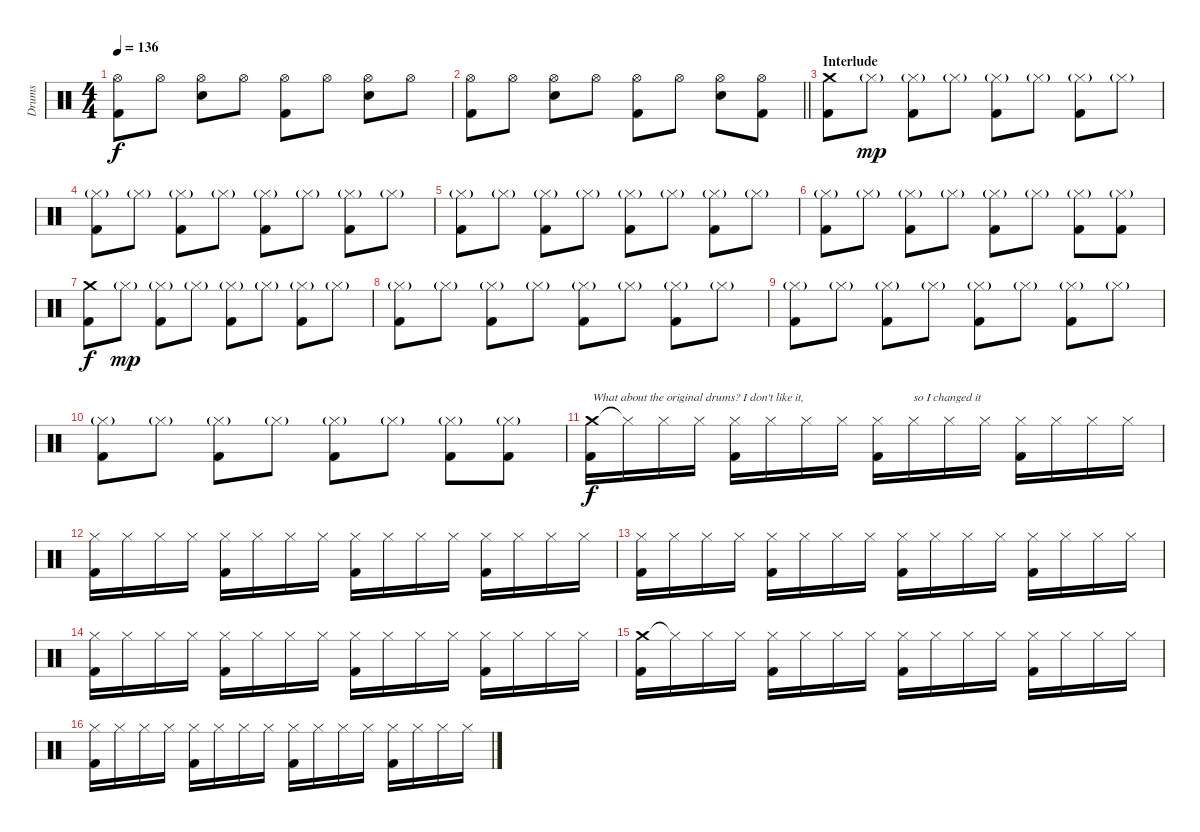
\track ("Drums" "Drums") {instrument percussion}
\staff {score}
\articulation defaults
\ts (4 4)
\tempo 136
\clef neutral
\ks c
("Hi-Hat (open)" "Kick (hit) 2").8{dy f} "Hi-Hat (open)".8 ("Hi-Hat (open)" "Electric Snare (hit)").8 "Hi-Hat (open)".8 ("Hi-Hat (open)" "Kick (hit) 2").8 "Hi-Hat (open)".8 ("Hi-Hat (open)" "Electric Snare (hit)").8 "Hi-Hat (open)".8 |
\barLineRight lightlight
("Hi-Hat (open)" "Kick (hit) 2").8 "Hi-Hat (open)".8 ("Hi-Hat (open)" "Electric Snare (hit)").8 "Hi-Hat (open)".8 ("Hi-Hat (open)" "Kick (hit) 2").8 "Hi-Hat (open)".8 ("Hi-Hat (open)" "Electric Snare (hit)").8 ("Hi-Hat (open)" "Kick (hit) 2").8 |
\section ("" "Interlude")
("Crash medium (hit)" "Kick (hit) 2").8 "Hi-Hat (closed)"{g}.8{dy mp} ("Hi-Hat (closed)"{g} "Kick (hit) 2").8 "Hi-Hat (closed)"{g}.8 ("Hi-Hat (closed)"{g} "Kick (hit) 2").8 "Hi-Hat (closed)"{g}.8 ("Hi-Hat (closed)"{g} "Kick (hit) 2").8 "Hi-Hat (closed)"{g}.8 |
("Hi-Hat (closed)"{g} "Kick (hit) 2").8 "Hi-Hat (closed)"{g}.8 ("Hi-Hat (closed)"{g} "Kick (hit) 2").8 "Hi-Hat (closed)"{g}.8 ("Hi-Hat (closed)"{g} "Kick (hit) 2").8 "Hi-Hat (closed)"{g}.8 ("Hi-Hat (closed)"{g} "Kick (hit) 2").8 "Hi-Hat (closed)"{g}.8 |
("Hi-Hat (closed)"{g} "Kick (hit) 2").8 "Hi-Hat (closed)"{g}.8 ("Hi-Hat (closed)"{g} "Kick (hit) 2").8 "Hi-Hat (closed)"{g}.8 ("Hi-Hat (closed)"{g} "Kick (hit) 2").8 "Hi-Hat (closed)"{g}.8 ("Hi-Hat (closed)"{g} "Kick (hit) 2").8 "Hi-Hat (closed)"{g}.8 |
("Hi-Hat (closed)"{g} "Kick (hit) 2").8 "Hi-Hat (closed)"{g}.8 ("Hi-Hat (closed)"{g} "Kick (hit) 2").8 "Hi-Hat (closed)"{g}.8 ("Hi-Hat (closed)"{g} "Kick (hit) 2").8 "Hi-Hat (closed)"{g}.8 ("Hi-Hat (closed)"{g} "Kick (hit) 2").8 ("Hi-Hat (closed)"{g} "Kick (hit) 2").8 |
("Crash medium (hit)" "Kick (hit) 2").8{dy f} "Hi-Hat (closed)"{g}.8{dy mp} ("Hi-Hat (closed)"{g} "Kick (hit) 2").8 "Hi-Hat (closed)"{g}.8 ("Hi-Hat (closed)"{g} "Kick (hit) 2").8 "Hi-Hat (closed)"{g}.8 ("Hi-Hat (closed)"{g} "Kick (hit) 2").8 "Hi-Hat (closed)"{g}.8 |
("Hi-Hat (closed)"{g} "Kick (hit) 2").8 "Hi-Hat (closed)"{g}.8 ("Hi-Hat (closed)"{g} "Kick (hit) 2").8 "Hi-Hat (closed)"{g}.8 ("Hi-Hat (closed)"{g} "Kick (hit) 2").8 "Hi-Hat (closed)"{g}.8 ("Hi-Hat (closed)"{g} "Kick (hit) 2").8 "Hi-Hat (closed)"{g}.8 |
("Hi-Hat (closed)"{g} "Kick (hit) 2").8 "Hi-Hat (closed)"{g}.8 ("Hi-Hat (closed)"{g} "Kick (hit) 2").8 "Hi-Hat (closed)"{g}.8 ("Hi-Hat (closed)"{g} "Kick (hit) 2").8 "Hi-Hat (closed)"{g}.8 ("Hi-Hat (closed)"{g} "Kick (hit) 2").8 "Hi-Hat (closed)"{g}.8 |
("Hi-Hat (closed)"{g} "Kick (hit) 2").8 "Hi-Hat (closed)"{g}.8 ("Hi-Hat (closed)"{g} "Kick (hit) 2").8 "Hi-Hat (closed)"{g}.8 ("Hi-Hat (closed)"{g} "Kick (hit) 2").8 "Hi-Hat (closed)"{g}.8 ("Hi-Hat (closed)"{g} "Kick (hit) 2").8 ("Hi-Hat (closed)"{g} "Kick (hit) 2").8 |
("Crash medium (hit)" "Kick (hit) 2").16{txt "What about the original drums? I don't like it," dy f} "Hi-Hat (closed)"{t}.16 "Hi-Hat (closed)".16 "Hi-Hat (closed)".16 ("Hi-Hat (closed)" "Kick (hit) 2").16 "Hi-Hat (closed)".16 "Hi-Hat (closed)".16 "Hi-Hat (closed)".16 ("Hi-Hat (closed)" "Kick (hit) 2").16 "Hi-Hat (closed)".16{txt "so I changed it"} "Hi-Hat (closed)".16 "Hi-Hat (closed)".16 ("Hi-Hat (closed)" "Kick (hit) 2").16 "Hi-Hat (closed)".16 "Hi-Hat (closed)".16 "Hi-Hat (closed)".16 |
("Hi-Hat (closed)" "Kick (hit) 2").16 "Hi-Hat (closed)".16 "Hi-Hat (closed)".16 "Hi-Hat (closed)".16 ("Hi-Hat (closed)" "Kick (hit) 2").16 "Hi-Hat (closed)".16 "Hi-Hat (closed)".16 "Hi-Hat (closed)".16 ("Hi-Hat (closed)" "Kick (hit) 2").16 "Hi-Hat (closed)".16 "Hi-Hat (closed)".16 "Hi-Hat (closed)".16 ("Hi-Hat (closed)" "Kick (hit) 2").16 "Hi-Hat (closed)".16 "Hi-Hat (closed)".16 "Hi-Hat (closed)".16 |
("Hi-Hat (closed)" "Kick (hit) 2").16 "Hi-Hat (closed)".16 "Hi-Hat (closed)".16 "Hi-Hat (closed)".16 ("Hi-Hat (closed)" "Kick (hit) 2").16 "Hi-Hat (closed)".16 "Hi-Hat (closed)".16 "Hi-Hat (closed)".16 ("Hi-Hat (closed)" "Kick (hit) 2").16 "Hi-Hat (closed)".16 "Hi-Hat (closed)".16 "Hi-Hat (closed)".16 ("Hi-Hat (closed)" "Kick (hit) 2").16 "Hi-Hat (closed)".16 "Hi-Hat (closed)".16 "Hi-Hat (closed)".16 |
("Hi-Hat (closed)" "Kick (hit) 2").16 "Hi-Hat (closed)".16 "Hi-Hat (closed)".16 "Hi-Hat (closed)".16 ("Hi-Hat (closed)" "Kick (hit) 2").16 "Hi-Hat (closed)".16 "Hi-Hat (closed)".16 "Hi-Hat (closed)".16 ("Hi-Hat (closed)" "Kick (hit) 2").16 "Hi-Hat (closed)".16 "Hi-Hat (closed)".16 "Hi-Hat (closed)".16 ("Hi-Hat (closed)" "Kick (hit) 2").16 "Hi-Hat (closed)".16 "Hi-Hat (closed)".16 "Hi-Hat (closed)".16 |
("Crash medium (hit)" "Kick (hit) 2").16 "Hi-Hat (closed)"{t}.16 "Hi-Hat (closed)".16 "Hi-Hat (closed)".16 ("Hi-Hat (closed)" "Kick (hit) 2").16 "Hi-Hat (closed)".16 "Hi-Hat (closed)".16 "Hi-Hat (closed)".16 ("Hi-Hat (closed)" "Kick (hit) 2").16 "Hi-Hat (closed)".16 "Hi-Hat (closed)".16 "Hi-Hat (closed)".16 ("Hi-Hat (closed)" "Kick (hit) 2").16 "Hi-Hat (closed)".16 "Hi-Hat (closed)".16 "Hi-Hat (closed)".16 |
("Hi-Hat (closed)" "Kick (hit) 2").16 "Hi-Hat (closed)".16 "Hi-Hat (closed)".16 "Hi-Hat (closed)".16 ("Hi-Hat (closed)" "Kick (hit) 2").16 "Hi-Hat (closed)".16 "Hi-Hat (closed)".16 "Hi-Hat (closed)".16 ("Hi-Hat (closed)" "Kick (hit) 2").16 "Hi-Hat (closed)".16 "Hi-Hat (closed)".16 "Hi-Hat (closed)".16 ("Hi-Hat (closed)" "Kick (hit) 2").16 "Hi-Hat (closed)".16 "Hi-Hat (closed)".16 "Hi-Hat (closed)".16
